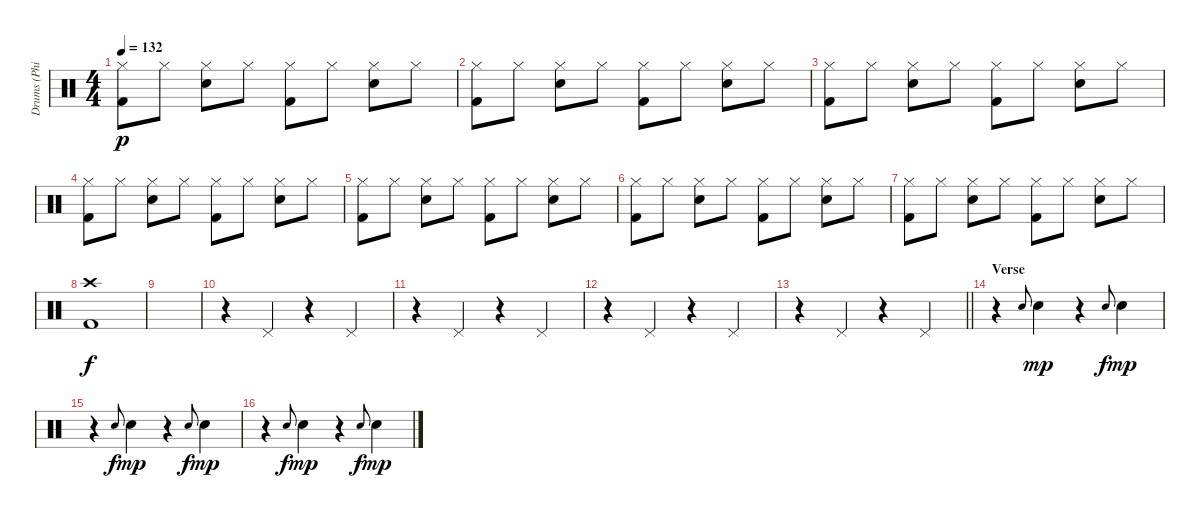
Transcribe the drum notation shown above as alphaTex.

\track ("Drums (Phil Rudd)" "Drums (Phi") {instrument percussion}
\staff {score}
\articulation defaults
\ts (4 4)
\tempo 132
\clef neutral
\ks c
("Hi-Hat (closed)" "Kick (hit) 2").8{dy p} "Hi-Hat (closed)".8 ("Hi-Hat (closed)" "Snare (hit) 2").8 "Hi-Hat (closed)".8 ("Hi-Hat (closed)" "Kick (hit) 2").8 "Hi-Hat (closed)".8 ("Hi-Hat (closed)" "Snare (hit) 2").8 "Hi-Hat (closed)".8 |
("Hi-Hat (closed)" "Kick (hit) 2").8 "Hi-Hat (closed)".8 ("Hi-Hat (closed)" "Snare (hit) 2").8 "Hi-Hat (closed)".8 ("Hi-Hat (closed)" "Kick (hit) 2").8 "Hi-Hat (closed)".8 ("Hi-Hat (closed)" "Snare (hit) 2").8 "Hi-Hat (closed)".8 |
("Hi-Hat (closed)" "Kick (hit) 2").8 "Hi-Hat (closed)".8 ("Hi-Hat (closed)" "Snare (hit) 2").8 "Hi-Hat (closed)".8 ("Hi-Hat (closed)" "Kick (hit) 2").8 "Hi-Hat (closed)".8 ("Hi-Hat (closed)" "Snare (hit) 2").8 "Hi-Hat (closed)".8 |
("Hi-Hat (closed)" "Kick (hit) 2").8 "Hi-Hat (closed)".8 ("Hi-Hat (closed)" "Snare (hit) 2").8 "Hi-Hat (closed)".8 ("Hi-Hat (closed)" "Kick (hit) 2").8 "Hi-Hat (closed)".8 ("Hi-Hat (closed)" "Snare (hit) 2").8 "Hi-Hat (closed)".8 |
("Hi-Hat (closed)" "Kick (hit) 2").8 "Hi-Hat (closed)".8 ("Hi-Hat (closed)" "Snare (hit) 2").8 "Hi-Hat (closed)".8 ("Hi-Hat (closed)" "Kick (hit) 2").8 "Hi-Hat (closed)".8 ("Hi-Hat (closed)" "Snare (hit) 2").8 "Hi-Hat (closed)".8 |
("Hi-Hat (closed)" "Kick (hit) 2").8 "Hi-Hat (closed)".8 ("Hi-Hat (closed)" "Snare (hit) 2").8 "Hi-Hat (closed)".8 ("Hi-Hat (closed)" "Kick (hit) 2").8 "Hi-Hat (closed)".8 ("Hi-Hat (closed)" "Snare (hit) 2").8 "Hi-Hat (closed)".8 |
("Hi-Hat (closed)" "Kick (hit) 2").8 "Hi-Hat (closed)".8 ("Hi-Hat (closed)" "Snare (hit) 2").8 "Hi-Hat (closed)".8 ("Hi-Hat (closed)" "Kick (hit) 2").8 "Hi-Hat (closed)".8 ("Hi-Hat (closed)" "Snare (hit) 2").8 "Hi-Hat (closed)".8 |
("Crash high (hit)" "Kick (hit) 2").1{dy f} |
|
r.4 "Pedal Hi-Hat (hit)".4 r.4 "Pedal Hi-Hat (hit)".4 |
r.4 "Pedal Hi-Hat (hit)".4 r.4 "Pedal Hi-Hat (hit)".4 |
r.4 "Pedal Hi-Hat (hit)".4 r.4 "Pedal Hi-Hat (hit)".4 |
\barLineRight lightlight
r.4 "Pedal Hi-Hat (hit)".4 r.4 "Pedal Hi-Hat (hit)".4 |
\section ("" "Verse")
r.4 "Snare (hit) 2".8{gr onbeat} "Snare (hit) 2".4{dy mp} r.4 "Snare (hit) 2".8{gr onbeat dy f} "Snare (hit) 2".4{dy mp} |
r.4 "Snare (hit) 2".8{gr onbeat dy f} "Snare (hit) 2".4{dy mp} r.4 "Snare (hit) 2".8{gr onbeat dy f} "Snare (hit) 2".4{dy mp} |
r.4 "Snare (hit) 2".8{gr onbeat dy f} "Snare (hit) 2".4{dy mp} r.4 "Snare (hit) 2".8{gr onbeat dy f} "Snare (hit) 2".4{dy mp}
